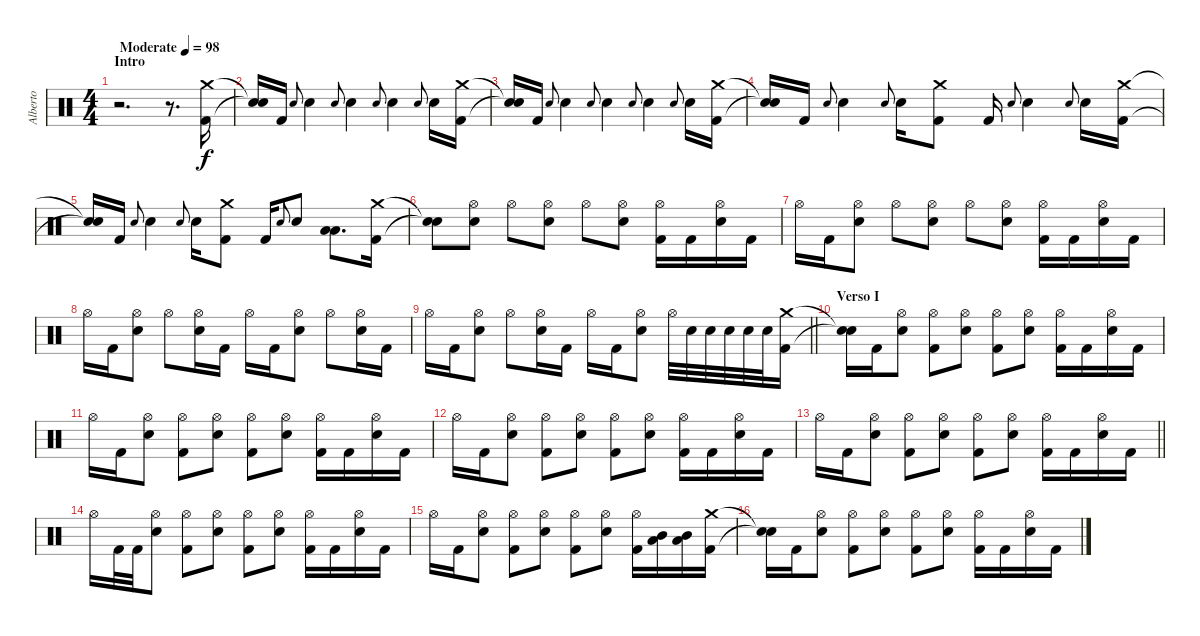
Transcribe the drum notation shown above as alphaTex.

\track ("Alberto" "Alberto") {instrument percussion}
\staff
\articulation defaults
\ts (4 4)
\section ("" "Intro")
\tempo (98 "Moderate")
\clef neutral
\ks c
r.2{d dy f} r.8{d} ("Crash medium (hit)" "Kick (hit) 2").16 |
("Snare (hit)"{t} "Snare (hit)"{t}).16 "Kick (hit) 2".16 "Electric Snare (hit)".8{gr onbeat} "Electric Snare (hit)".4 "Electric Snare (hit)".8{gr onbeat} "Electric Snare (hit)".4 "Electric Snare (hit)".8{gr onbeat} "Electric Snare (hit)".4 "Electric Snare (hit)".8{gr onbeat} "Electric Snare (hit)".16 ("Crash medium (hit)" "Kick (hit) 2").16 |
("Snare (hit)"{t} "Snare (hit)"{t}).16 "Kick (hit) 2".16 "Electric Snare (hit)".8{gr onbeat} "Electric Snare (hit)".4 "Electric Snare (hit)".8{gr onbeat} "Electric Snare (hit)".4 "Electric Snare (hit)".8{gr onbeat} "Electric Snare (hit)".4 "Electric Snare (hit)".8{gr onbeat} "Electric Snare (hit)".16 ("Crash medium (hit)" "Kick (hit) 2").16 |
("Snare (hit)"{t} "Snare (hit)"{t}).16 "Kick (hit) 2".16 "Electric Snare (hit)".8{gr onbeat} "Electric Snare (hit)".4 "Electric Snare (hit)".8{gr onbeat} "Electric Snare (hit)".16 ("Crash medium (hit)" "Kick (hit) 2").8 "Kick (hit) 2".16 "Electric Snare (hit)".8{gr onbeat} "Electric Snare (hit)".4 "Electric Snare (hit)".8{gr onbeat} "Electric Snare (hit)".16 ("Crash medium (hit)" "Kick (hit) 2").16 |
("Snare (hit)"{t} "Snare (hit)"{t}).16 "Kick (hit) 2".16 "Electric Snare (hit)".8{gr onbeat} "Electric Snare (hit)".4 "Electric Snare (hit)".8{gr onbeat} "Electric Snare (hit)".16 ("Crash medium (hit)" "Kick (hit) 2").8 "Kick (hit) 2".16 "Electric Snare (hit)".8{gr onbeat} "Electric Snare (hit)".8 ("Low Tom (hit)" "Low Floor Tom (hit)").8{d} ("Crash medium (hit)" "Kick (hit) 2").16 |
("Snare (hit)"{t} "Snare (hit)"{t}).8 ("Hi-Hat (open)" "Electric Snare (hit)").8 "Hi-Hat (open)".8 ("Hi-Hat (open)" "Electric Snare (hit)").8 "Hi-Hat (open)".8 ("Hi-Hat (open)" "Electric Snare (hit)").8 ("Hi-Hat (open)" "Kick (hit) 2").16 "Kick (hit) 2".16 ("Hi-Hat (open)" "Electric Snare (hit)").16 "Kick (hit) 2".16 |
"Hi-Hat (open)".16 "Kick (hit) 2".16 ("Hi-Hat (open)" "Electric Snare (hit)").8 "Hi-Hat (open)".8 ("Hi-Hat (open)" "Electric Snare (hit)").8 "Hi-Hat (open)".8 ("Hi-Hat (open)" "Electric Snare (hit)").8 ("Hi-Hat (open)" "Kick (hit) 2").16 "Kick (hit) 2".16 ("Hi-Hat (open)" "Electric Snare (hit)").16 "Kick (hit) 2".16 |
"Hi-Hat (open)".16 "Kick (hit) 2".16 ("Hi-Hat (open)" "Electric Snare (hit)").8 "Hi-Hat (open)".8 ("Hi-Hat (open)" "Electric Snare (hit)").16 "Kick (hit) 2".16 "Hi-Hat (open)".16 "Kick (hit) 2".16 ("Hi-Hat (open)" "Electric Snare (hit)").8 "Hi-Hat (open)".8 ("Hi-Hat (open)" "Electric Snare (hit)").16 "Kick (hit) 2".16 |
\barLineRight lightlight "Hi-Hat (open)".16 "Kick (hit) 2".16
("Hi-Hat (open)" "Electric Snare (hit)").8 "Hi-Hat (open)".8 ("Hi-Hat (open)" "Electric Snare (hit)").16 "Kick (hit) 2".16 "Hi-Hat (open)".16 "Kick (hit) 2".16 ("Hi-Hat (open)" "Electric Snare (hit)").8 "Hi-Hat (open)".32 "Electric Snare (hit)".32 "Electric Snare (hit)".32 "Electric Snare (hit)".32 "Electric Snare (hit)".32 "Electric Snare (hit)".32 ("Crash medium (hit)" "Kick (hit) 2").16 |
\section ("" "Verso I")
("Snare (hit)"{t} "Snare (hit)"{t}).16 "Kick (hit) 2".16 ("Hi-Hat (open)" "Electric Snare (hit)").8 ("Hi-Hat (open)" "Kick (hit) 2").8 ("Hi-Hat (open)" "Electric Snare (hit)").8 ("Hi-Hat (open)" "Kick (hit) 2").8 ("Hi-Hat (open)" "Electric Snare (hit)").8 ("Hi-Hat (open)" "Kick (hit) 2").16 "Kick (hit) 2".16 ("Hi-Hat (open)" "Electric Snare (hit)").16 "Kick (hit) 2".16 |
"Hi-Hat (open)".16 "Kick (hit) 2".16 ("Hi-Hat (open)" "Electric Snare (hit)").8 ("Hi-Hat (open)" "Kick (hit) 2").8 ("Hi-Hat (open)" "Electric Snare (hit)").8 ("Hi-Hat (open)" "Kick (hit) 2").8 ("Hi-Hat (open)" "Electric Snare (hit)").8 ("Hi-Hat (open)" "Kick (hit) 2").16 "Kick (hit) 2".16 ("Hi-Hat (open)" "Electric Snare (hit)").16 "Kick (hit) 2".16 |
"Hi-Hat (open)".16 "Kick (hit) 2".16 ("Hi-Hat (open)" "Electric Snare (hit)").8 ("Hi-Hat (open)" "Kick (hit) 2").8 ("Hi-Hat (open)" "Electric Snare (hit)").8 ("Hi-Hat (open)" "Kick (hit) 2").8 ("Hi-Hat (open)" "Electric Snare (hit)").8 ("Hi-Hat (open)" "Kick (hit) 2").16 "Kick (hit) 2".16 ("Hi-Hat (open)" "Electric Snare (hit)").16 "Kick (hit) 2".16 |
\barLineRight lightlight "Hi-Hat (open)".16 "Kick (hit) 2".16
("Hi-Hat (open)" "Electric Snare (hit)").8 ("Hi-Hat (open)" "Kick (hit) 2").8 ("Hi-Hat (open)" "Electric Snare (hit)").8 ("Hi-Hat (open)" "Kick (hit) 2").8 ("Hi-Hat (open)" "Electric Snare (hit)").8 ("Hi-Hat (open)" "Kick (hit) 2").16 "Kick (hit) 2".16 ("Hi-Hat (open)" "Electric Snare (hit)").16 "Kick (hit) 2".16 |
"Hi-Hat (open)".16 "Kick (hit) 2".32 "Kick (hit) 2".32 ("Hi-Hat (open)" "Electric Snare (hit)").8 ("Hi-Hat (open)" "Kick (hit) 2").8 ("Hi-Hat (open)" "Electric Snare (hit)").8 ("Hi-Hat (open)" "Kick (hit) 2").8 ("Hi-Hat (open)" "Electric Snare (hit)").8 ("Hi-Hat (open)" "Kick (hit) 2").16 "Kick (hit) 2".16 ("Hi-Hat (open)" "Electric Snare (hit)").16 "Kick (hit) 2".16 |
"Hi-Hat (open)".16 "Kick (hit) 2".16 ("Hi-Hat (open)" "Electric Snare (hit)").8 ("Hi-Hat (open)" "Kick (hit) 2").8 ("Hi-Hat (open)" "Electric Snare (hit)").8 ("Hi-Hat (open)" "Kick (hit) 2").8 ("Hi-Hat (open)" "Electric Snare (hit)").8 ("Hi-Hat (open)" "Kick (hit) 2").16 ("Mid Tom (hit)" "Low Tom (hit)").16 ("Mid Tom (hit)" "Low Tom (hit)").16 ("Crash medium (hit)" "Kick (hit) 2").16 |
("Snare (hit)"{t} "Snare (hit)"{t}).16 "Kick (hit) 2".16 ("Hi-Hat (open)" "Electric Snare (hit)").8 ("Hi-Hat (open)" "Kick (hit) 2").8 ("Hi-Hat (open)" "Electric Snare (hit)").8 ("Hi-Hat (open)" "Kick (hit) 2").8 ("Hi-Hat (open)" "Electric Snare (hit)").8 ("Hi-Hat (open)" "Kick (hit) 2").16 "Kick (hit) 2".16 ("Hi-Hat (open)" "Electric Snare (hit)").16 "Kick (hit) 2".16
